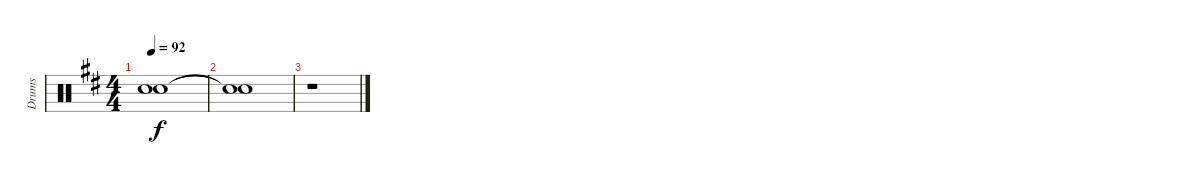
\track ("Drums" "Drums") {instrument percussion}
\staff {score}
\articulation defaults
\ts (4 4)
\tempo 92
\clef neutral
\ks d
("Snare (hit)"{t} "Snare (hit)"{t}).1{dy f} |
("Snare (hit)"{t} "Snare (hit)"{t}).1 |
r.1
